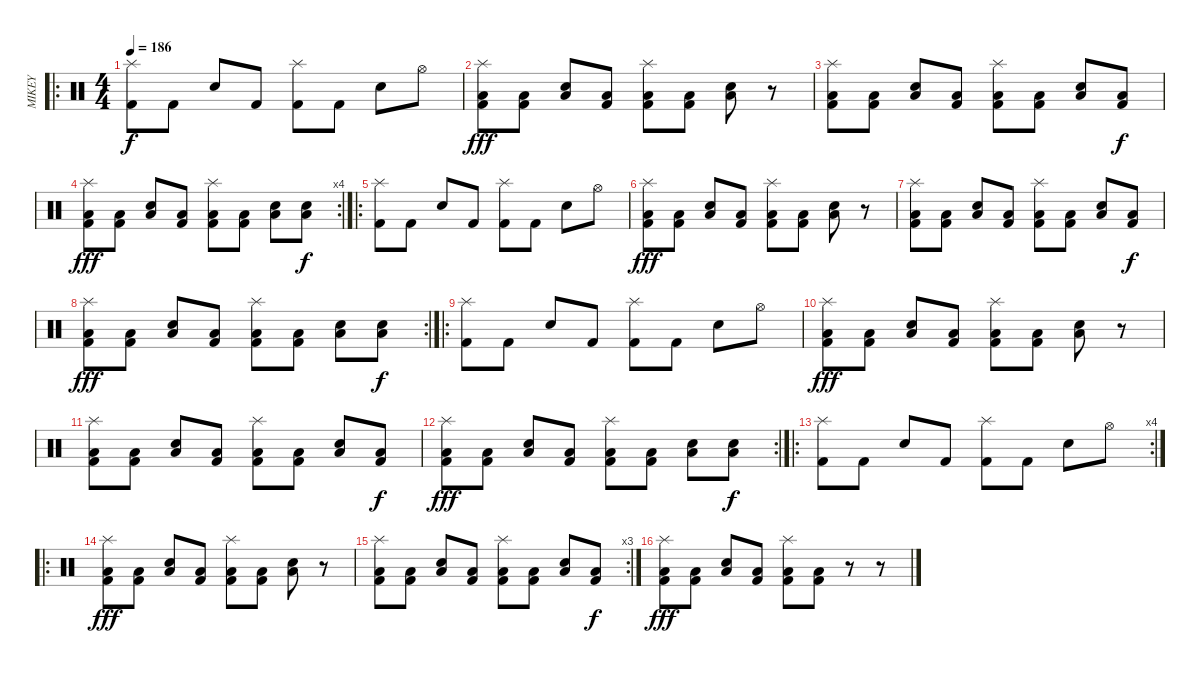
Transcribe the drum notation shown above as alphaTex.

\track ("MIKEY" "MIKEY") {instrument percussion}
\staff {score}
\articulation defaults
\ro
\ts (4 4)
\tempo 186
\clef neutral
\ks c
("Splash (hit)" "Kick (hit) 2").8{dy f} "Kick (hit) 2".8 "Snare (hit) 2".8 "Kick (hit) 2".8 ("Splash (hit)" "Kick (hit) 2").8 "Kick (hit) 2".8 "Snare (hit) 2".8 "Hi-Hat (open)".8 |
("Low Floor Tom (hit)" "Splash (hit)" "Kick (hit) 2").8{dy fff} ("Low Floor Tom (hit)" "Kick (hit) 2").8 ("Low Floor Tom (hit)" "Snare (hit) 2").8 ("Low Floor Tom (hit)" "Kick (hit) 2").8 ("Low Floor Tom (hit)" "Splash (hit)" "Kick (hit) 2").8 ("Low Floor Tom (hit)" "Kick (hit) 2").8 ("Low Floor Tom (hit)" "Snare (hit) 2").8 r.8 |
("Low Floor Tom (hit)" "Splash (hit)" "Kick (hit) 2").8 ("Low Floor Tom (hit)" "Kick (hit) 2").8 ("Low Floor Tom (hit)" "Snare (hit) 2").8 ("Low Floor Tom (hit)" "Kick (hit) 2").8 ("Low Floor Tom (hit)" "Splash (hit)" "Kick (hit) 2").8 ("Low Floor Tom (hit)" "Kick (hit) 2").8 ("Low Floor Tom (hit)" "Snare (hit) 2").8 ("Low Floor Tom (hit)" "Kick (hit) 2").8{dy f} |
\rc 4
("Low Floor Tom (hit)" "Splash (hit)" "Kick (hit) 2").8{dy fff} ("Low Floor Tom (hit)" "Kick (hit) 2").8 ("Low Floor Tom (hit)" "Snare (hit) 2").8 ("Low Floor Tom (hit)" "Kick (hit) 2").8 ("Low Floor Tom (hit)" "Splash (hit)" "Kick (hit) 2").8 ("Low Floor Tom (hit)" "Kick (hit) 2").8 ("Low Floor Tom (hit)" "Snare (hit) 2").8 ("Low Floor Tom (hit)" "Snare (hit) 2").8{dy f} |
\ro
("Splash (hit)" "Kick (hit) 2").8 "Kick (hit) 2".8 "Snare (hit) 2".8 "Kick (hit) 2".8 ("Splash (hit)" "Kick (hit) 2").8 "Kick (hit) 2".8 "Snare (hit) 2".8 "Hi-Hat (open)".8 |
("Low Floor Tom (hit)" "Splash (hit)" "Kick (hit) 2").8{dy fff} ("Low Floor Tom (hit)" "Kick (hit) 2").8 ("Low Floor Tom (hit)" "Snare (hit) 2").8 ("Low Floor Tom (hit)" "Kick (hit) 2").8 ("Low Floor Tom (hit)" "Splash (hit)" "Kick (hit) 2").8 ("Low Floor Tom (hit)" "Kick (hit) 2").8 ("Low Floor Tom (hit)" "Snare (hit) 2").8 r.8 |
("Low Floor Tom (hit)" "Splash (hit)" "Kick (hit) 2").8 ("Low Floor Tom (hit)" "Kick (hit) 2").8 ("Low Floor Tom (hit)" "Snare (hit) 2").8 ("Low Floor Tom (hit)" "Kick (hit) 2").8 ("Low Floor Tom (hit)" "Splash (hit)" "Kick (hit) 2").8 ("Low Floor Tom (hit)" "Kick (hit) 2").8 ("Low Floor Tom (hit)" "Snare (hit) 2").8 ("Low Floor Tom (hit)" "Kick (hit) 2").8{dy f} |
\rc 2
("Low Floor Tom (hit)" "Splash (hit)" "Kick (hit) 2").8{dy fff} ("Low Floor Tom (hit)" "Kick (hit) 2").8 ("Low Floor Tom (hit)" "Snare (hit) 2").8 ("Low Floor Tom (hit)" "Kick (hit) 2").8 ("Low Floor Tom (hit)" "Splash (hit)" "Kick (hit) 2").8 ("Low Floor Tom (hit)" "Kick (hit) 2").8 ("Low Floor Tom (hit)" "Snare (hit) 2").8 ("Low Floor Tom (hit)" "Snare (hit) 2").8{dy f} |
\ro
("Splash (hit)" "Kick (hit) 2").8 "Kick (hit) 2".8 "Snare (hit) 2".8 "Kick (hit) 2".8 ("Splash (hit)" "Kick (hit) 2").8 "Kick (hit) 2".8 "Snare (hit) 2".8 "Hi-Hat (open)".8 |
("Low Floor Tom (hit)" "Splash (hit)" "Kick (hit) 2").8{dy fff} ("Low Floor Tom (hit)" "Kick (hit) 2").8 ("Low Floor Tom (hit)" "Snare (hit) 2").8 ("Low Floor Tom (hit)" "Kick (hit) 2").8 ("Low Floor Tom (hit)" "Splash (hit)" "Kick (hit) 2").8 ("Low Floor Tom (hit)" "Kick (hit) 2").8 ("Low Floor Tom (hit)" "Snare (hit) 2").8 r.8 |
("Low Floor Tom (hit)" "Splash (hit)" "Kick (hit) 2").8 ("Low Floor Tom (hit)" "Kick (hit) 2").8 ("Low Floor Tom (hit)" "Snare (hit) 2").8 ("Low Floor Tom (hit)" "Kick (hit) 2").8 ("Low Floor Tom (hit)" "Splash (hit)" "Kick (hit) 2").8 ("Low Floor Tom (hit)" "Kick (hit) 2").8 ("Low Floor Tom (hit)" "Snare (hit) 2").8 ("Low Floor Tom (hit)" "Kick (hit) 2").8{dy f} |
\rc 2
("Low Floor Tom (hit)" "Splash (hit)" "Kick (hit) 2").8{dy fff} ("Low Floor Tom (hit)" "Kick (hit) 2").8 ("Low Floor Tom (hit)" "Snare (hit) 2").8 ("Low Floor Tom (hit)" "Kick (hit) 2").8 ("Low Floor Tom (hit)" "Splash (hit)" "Kick (hit) 2").8 ("Low Floor Tom (hit)" "Kick (hit) 2").8 ("Low Floor Tom (hit)" "Snare (hit) 2").8 ("Low Floor Tom (hit)" "Snare (hit) 2").8{dy f} |
\ro
\rc 4
("Splash (hit)" "Kick (hit) 2").8 "Kick (hit) 2".8 "Snare (hit) 2".8 "Kick (hit) 2".8 ("Splash (hit)" "Kick (hit) 2").8 "Kick (hit) 2".8 "Snare (hit) 2".8 "Hi-Hat (open)".8 |
\ro
("Low Floor Tom (hit)" "Splash (hit)" "Kick (hit) 2").8{dy fff} ("Low Floor Tom (hit)" "Kick (hit) 2").8 ("Low Floor Tom (hit)" "Snare (hit) 2").8 ("Low Floor Tom (hit)" "Kick (hit) 2").8 ("Low Floor Tom (hit)" "Splash (hit)" "Kick (hit) 2").8 ("Low Floor Tom (hit)" "Kick (hit) 2").8 ("Low Floor Tom (hit)" "Snare (hit) 2").8 r.8 |
\rc 3
("Low Floor Tom (hit)" "Splash (hit)" "Kick (hit) 2").8 ("Low Floor Tom (hit)" "Kick (hit) 2").8 ("Low Floor Tom (hit)" "Snare (hit) 2").8 ("Low Floor Tom (hit)" "Kick (hit) 2").8 ("Low Floor Tom (hit)" "Splash (hit)" "Kick (hit) 2").8 ("Low Floor Tom (hit)" "Kick (hit) 2").8 ("Low Floor Tom (hit)" "Snare (hit) 2").8 ("Low Floor Tom (hit)" "Kick (hit) 2").8{dy f} |
("Low Floor Tom (hit)" "Splash (hit)" "Kick (hit) 2").8{dy fff} ("Low Floor Tom (hit)" "Kick (hit) 2").8 ("Low Floor Tom (hit)" "Snare (hit) 2").8 ("Low Floor Tom (hit)" "Kick (hit) 2").8 ("Low Floor Tom (hit)" "Splash (hit)" "Kick (hit) 2").8 ("Low Floor Tom (hit)" "Kick (hit) 2").8 r.8 r.8
